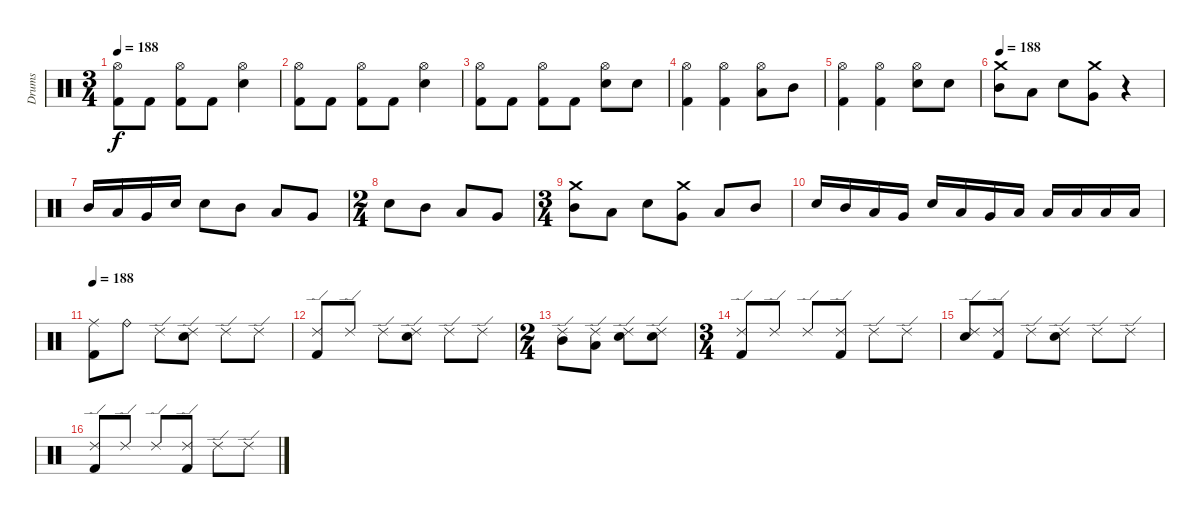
\track ("Drums" "Drums") {instrument percussion}
\staff {score}
\articulation defaults
\ts (3 4)
\tempo 188
\clef neutral
\ks c
("Hi-Hat (open)" "Kick (hit) 2").8{dy f} "Kick (hit) 2".8 ("Hi-Hat (open)" "Kick (hit) 2").8 "Kick (hit) 2".8 ("Electric Snare (hit)" "Hi-Hat (open)").4 |
("Hi-Hat (open)" "Kick (hit) 2").8 "Kick (hit) 2".8 ("Hi-Hat (open)" "Kick (hit) 2").8 "Kick (hit) 2".8 ("Electric Snare (hit)" "Hi-Hat (open)").4 |
("Hi-Hat (open)" "Kick (hit) 2").8 "Kick (hit) 2".8 ("Hi-Hat (open)" "Kick (hit) 2").8 "Kick (hit) 2".8 ("Electric Snare (hit)" "Hi-Hat (open)").8 "Electric Snare (hit)".8 |
("Hi-Hat (open)" "Kick (hit) 2").4 ("Hi-Hat (open)" "Kick (hit) 2").4 ("Hi-Hat (open)" "Low Tom (hit)").8 "Mid Tom (hit)".8 |
("Hi-Hat (open)" "Kick (hit) 2").4 ("Hi-Hat (open)" "Kick (hit) 2").4 ("Electric Snare (hit)" "Hi-Hat (open)").8 "Electric Snare (hit)".8 |
\tempo 188
("Crash medium (hit)" "Mid Tom (hit)").8 "Low Tom (hit)".8 "Electric Snare (hit)".8 ("Crash medium (hit)" "Very Low Tom (hit)").8 r.4 |
"Mid Tom (hit)".16 "Low Tom (hit)".16 "Very Low Tom (hit)".16 "Snare (hit) 2".16 "Electric Snare (hit)".8 "Mid Tom (hit)".8 "Low Tom (hit)".8 "Very Low Tom (hit)".8 |
\ts (2 4)
"Electric Snare (hit)".8 "Mid Tom (hit)".8 "Low Tom (hit)".8 "Very Low Tom (hit)".8 |
\ts (3 4)
("Crash medium (hit)" "Mid Tom (hit)").8 "Low Tom (hit)".8 "Electric Snare (hit)".8 ("Crash medium (hit)" "Very Low Tom (hit)").8 "Low Tom (hit)".8 "Mid Tom (hit)".8 |
"Electric Snare (hit)".16 "Mid Tom (hit)".16 "Low Tom (hit)".16 "Very Low Tom (hit)".16 "Electric Snare (hit)".16 "Low Tom (hit)".16 "Very Low Tom (hit)".16 "Low Floor Tom (hit)".16 "Low Floor Tom (hit)".16 "Low Tom (hit)".16 "Low Tom (hit)".16 "Low Tom (hit)".16 |
\tempo 188
("Ride (middle)" "Kick (hit) 2").8 "Ride (bell)".8 "Ride (edge) 2".8 ("Electric Snare (hit)" "Ride (edge) 2").8 "Ride (edge) 2".8 "Ride (edge) 2".8 |
("Ride (edge) 2" "Kick (hit) 2").8 "Ride (edge) 2".8 "Ride (edge) 2".8 ("Electric Snare (hit)" "Ride (edge) 2").8 "Ride (edge) 2".8 "Ride (edge) 2".8 |
\ts (2 4)
("Ride (edge) 2" "Mid Tom (hit)").8 ("Ride (edge) 2" "Low Tom (hit)").8 ("Electric Snare (hit)" "Ride (edge) 2").8 ("Electric Snare (hit)" "Ride (edge) 2").8 |
\ts (3 4)
("Ride (edge) 2" "Kick (hit) 2").8 "Ride (edge) 2".8 "Ride (edge) 2".8 ("Ride (edge) 2" "Kick (hit) 2").8 "Ride (edge) 2".8 "Ride (edge) 2".8 |
("Electric Snare (hit)" "Ride (edge) 2").8 ("Ride (edge) 2" "Kick (hit) 2").8 "Ride (edge) 2".8 ("Electric Snare (hit)" "Ride (edge) 2").8 "Ride (edge) 2".8 "Ride (edge) 2".8 |
("Ride (edge) 2" "Kick (hit) 2").8 "Ride (edge) 2".8 "Ride (edge) 2".8 ("Ride (edge) 2" "Kick (hit) 2").8 "Ride (edge) 2".8 "Ride (edge) 2".8
